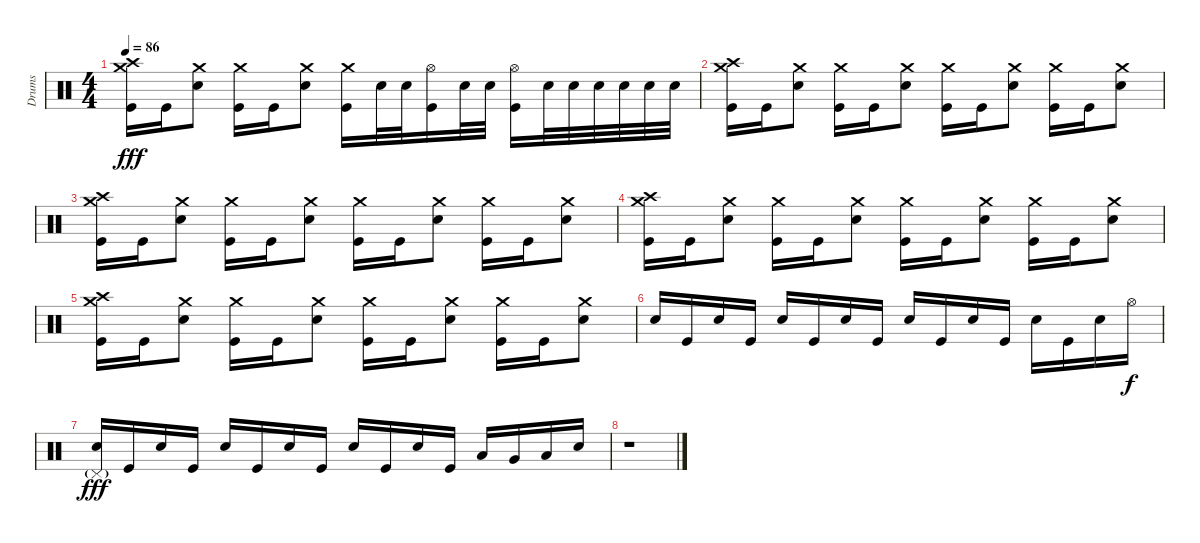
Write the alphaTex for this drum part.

\track ("Drums" "Drums") {instrument percussion}
\staff {score}
\articulation defaults
\ts (4 4)
\tempo 86
\clef neutral
\ks c
("Crash high (hit)" "Crash medium (hit)" "Kick (hit)").16{dy fff} "Kick (hit)".16 ("Crash medium (hit)" "Electric Snare (hit)").8 ("Crash medium (hit)" "Kick (hit)").16 "Kick (hit)".16 ("Crash medium (hit)" "Electric Snare (hit)").8 ("Crash medium (hit)" "Kick (hit)").16 "Electric Snare (hit)".32 "Electric Snare (hit)".32 ("Hi-Hat (open)" "Kick (hit)").16 "Electric Snare (hit)".32 "Electric Snare (hit)".32 ("Hi-Hat (open)" "Kick (hit)").16 "Electric Snare (hit)".32 "Electric Snare (hit)".32 "Electric Snare (hit)".32 "Electric Snare (hit)".32 "Electric Snare (hit)".32 "Electric Snare (hit)".32 |
("Crash high (hit)" "Crash medium (hit)" "Kick (hit)").16 "Kick (hit)".16 ("Crash medium (hit)" "Electric Snare (hit)").8 ("Crash medium (hit)" "Kick (hit)").16 "Kick (hit)".16 ("Crash medium (hit)" "Electric Snare (hit)").8 ("Crash medium (hit)" "Kick (hit)").16 "Kick (hit)".16 ("Crash medium (hit)" "Electric Snare (hit)").8 ("Crash medium (hit)" "Kick (hit)").16 "Kick (hit)".16 ("Crash medium (hit)" "Electric Snare (hit)").8 |
("Crash high (hit)" "Crash medium (hit)" "Kick (hit)").16 "Kick (hit)".16 ("Crash medium (hit)" "Electric Snare (hit)").8 ("Crash medium (hit)" "Kick (hit)").16 "Kick (hit)".16 ("Crash medium (hit)" "Electric Snare (hit)").8 ("Crash medium (hit)" "Kick (hit)").16 "Kick (hit)".16 ("Crash medium (hit)" "Electric Snare (hit)").8 ("Crash medium (hit)" "Kick (hit)").16 "Kick (hit)".16 ("Crash medium (hit)" "Electric Snare (hit)").8 |
("Crash high (hit)" "Crash medium (hit)" "Kick (hit)").16 "Kick (hit)".16 ("Crash medium (hit)" "Electric Snare (hit)").8 ("Crash medium (hit)" "Kick (hit)").16 "Kick (hit)".16 ("Crash medium (hit)" "Electric Snare (hit)").8 ("Crash medium (hit)" "Kick (hit)").16 "Kick (hit)".16 ("Crash medium (hit)" "Electric Snare (hit)").8 ("Crash medium (hit)" "Kick (hit)").16 "Kick (hit)".16 ("Crash medium (hit)" "Electric Snare (hit)").8 |
("Crash high (hit)" "Crash medium (hit)" "Kick (hit)").16 "Kick (hit)".16 ("Crash medium (hit)" "Electric Snare (hit)").8 ("Crash medium (hit)" "Kick (hit)").16 "Kick (hit)".16 ("Crash medium (hit)" "Electric Snare (hit)").8 ("Crash medium (hit)" "Kick (hit)").16 "Kick (hit)".16 ("Crash medium (hit)" "Electric Snare (hit)").8 ("Crash medium (hit)" "Kick (hit)").16 "Kick (hit)".16 ("Crash medium (hit)" "Electric Snare (hit)").8 |
"Electric Snare (hit)".16 "Kick (hit)".16 "Electric Snare (hit)".16 "Kick (hit)".16 "Electric Snare (hit)".16 "Kick (hit)".16 "Electric Snare (hit)".16 "Kick (hit)".16 "Electric Snare (hit)".16 "Kick (hit)".16 "Electric Snare (hit)".16 "Kick (hit)".16 "Electric Snare (hit)".16 "Kick (hit)".16 "Electric Snare (hit)".16 "Hi-Hat (open)".16{dy f} |
("Pedal Hi-Hat (hit)"{g} "Electric Snare (hit)").16{dy fff} "Kick (hit)".16 "Electric Snare (hit)".16 "Kick (hit)".16 "Electric Snare (hit)".16 "Kick (hit)".16 "Electric Snare (hit)".16 "Kick (hit)".16 "Electric Snare (hit)".16 "Kick (hit)".16 "Electric Snare (hit)".16 "Kick (hit)".16 "Low Tom (hit)".16 "Very Low Tom (hit)".16 "Low Floor Tom (hit)".16 "Electric Snare (hit)".16 |
r.1
